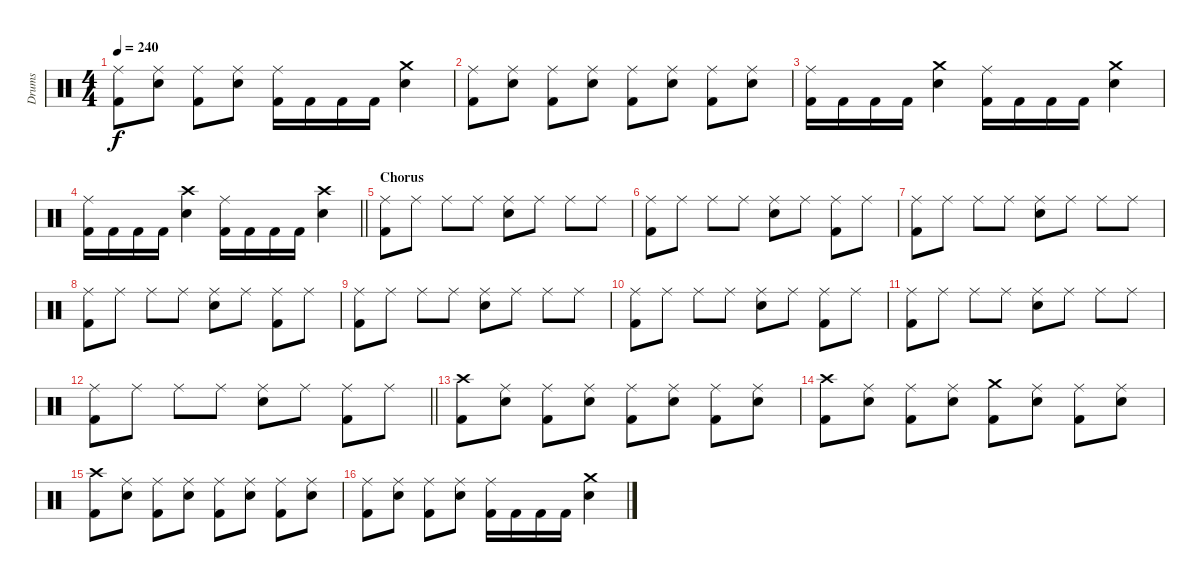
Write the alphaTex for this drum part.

\track ("Drums" "Drums") {instrument percussion}
\staff {score}
\articulation defaults
\ts (4 4)
\tempo 240
\clef neutral
\ks c
("Ride (middle)" "Kick (hit) 2").8{dy f} ("Ride (middle)" "Snare (hit) 2").8 ("Ride (middle)" "Kick (hit) 2").8 ("Ride (middle)" "Snare (hit) 2").8 ("Ride (middle)" "Kick (hit) 2").16 "Kick (hit) 2".16 "Kick (hit) 2".16 "Kick (hit) 2".16 ("Crash medium (hit)" "Snare (hit) 2").4 |
("Ride (middle)" "Kick (hit) 2").8 ("Ride (middle)" "Snare (hit) 2").8 ("Ride (middle)" "Kick (hit) 2").8 ("Ride (middle)" "Snare (hit) 2").8 ("Ride (middle)" "Kick (hit) 2").8 ("Ride (middle)" "Snare (hit) 2").8 ("Ride (middle)" "Kick (hit) 2").8 ("Ride (middle)" "Snare (hit) 2").8 |
("Ride (middle)" "Kick (hit) 2").16 "Kick (hit) 2".16 "Kick (hit) 2".16 "Kick (hit) 2".16 ("Crash medium (hit)" "Snare (hit) 2").4 ("Ride (middle)" "Kick (hit) 2").16 "Kick (hit) 2".16 "Kick (hit) 2".16 "Kick (hit) 2".16 ("Crash medium (hit)" "Snare (hit) 2").4 |
\barLineRight lightlight
("Ride (middle)" "Kick (hit) 2").16 "Kick (hit) 2".16 "Kick (hit) 2".16 "Kick (hit) 2".16 ("Crash high (hit)" "Snare (hit) 2").4 ("Ride (middle)" "Kick (hit) 2").16 "Kick (hit) 2".16 "Kick (hit) 2".16 "Kick (hit) 2".16 ("Crash high (hit)" "Snare (hit) 2").4 |
\section ("" "Chorus")
("Ride (middle)" "Kick (hit) 2").8 "Ride (middle)".8 "Ride (middle)".8 "Ride (middle)".8 ("Ride (middle)" "Snare (hit) 2").8 "Ride (middle)".8 "Ride (middle)".8 "Ride (middle)".8 |
("Ride (middle)" "Kick (hit) 2").8 "Ride (middle)".8 "Ride (middle)".8 "Ride (middle)".8 ("Ride (middle)" "Snare (hit) 2").8 "Ride (middle)".8 ("Ride (middle)" "Kick (hit) 2").8 "Ride (middle)".8 |
("Ride (middle)" "Kick (hit) 2").8 "Ride (middle)".8 "Ride (middle)".8 "Ride (middle)".8 ("Ride (middle)" "Snare (hit) 2").8 "Ride (middle)".8 "Ride (middle)".8 "Ride (middle)".8 |
("Ride (middle)" "Kick (hit) 2").8 "Ride (middle)".8 "Ride (middle)".8 "Ride (middle)".8 ("Ride (middle)" "Snare (hit) 2").8 "Ride (middle)".8 ("Ride (middle)" "Kick (hit) 2").8 "Ride (middle)".8 |
("Ride (middle)" "Kick (hit) 2").8 "Ride (middle)".8 "Ride (middle)".8 "Ride (middle)".8 ("Ride (middle)" "Snare (hit) 2").8 "Ride (middle)".8 "Ride (middle)".8 "Ride (middle)".8 |
("Ride (middle)" "Kick (hit) 2").8 "Ride (middle)".8 "Ride (middle)".8 "Ride (middle)".8 ("Ride (middle)" "Snare (hit) 2").8 "Ride (middle)".8 ("Ride (middle)" "Kick (hit) 2").8 "Ride (middle)".8 |
("Ride (middle)" "Kick (hit) 2").8 "Ride (middle)".8 "Ride (middle)".8 "Ride (middle)".8 ("Ride (middle)" "Snare (hit) 2").8 "Ride (middle)".8 "Ride (middle)".8 "Ride (middle)".8 |
\barLineRight lightlight
("Ride (middle)" "Kick (hit) 2").8 "Ride (middle)".8 "Ride (middle)".8 "Ride (middle)".8 ("Ride (middle)" "Snare (hit) 2").8 "Ride (middle)".8 ("Ride (middle)" "Kick (hit) 2").8 "Ride (middle)".8 |
\section ("" "")
("Crash high (hit)" "Kick (hit) 2").8 ("Ride (middle)" "Snare (hit) 2").8 ("Ride (middle)" "Kick (hit) 2").8 ("Ride (middle)" "Snare (hit) 2").8 ("Ride (middle)" "Kick (hit) 2").8 ("Ride (middle)" "Snare (hit) 2").8 ("Ride (middle)" "Kick (hit) 2").8 ("Ride (middle)" "Snare (hit) 2").8 |
("Crash high (hit)" "Kick (hit) 2").8 ("Ride (middle)" "Snare (hit) 2").8 ("Ride (middle)" "Kick (hit) 2").8 ("Ride (middle)" "Snare (hit) 2").8 ("Crash medium (hit)" "Kick (hit) 2").8 ("Ride (middle)" "Snare (hit) 2").8 ("Ride (middle)" "Kick (hit) 2").8 ("Ride (middle)" "Snare (hit) 2").8 |
("Crash high (hit)" "Kick (hit) 2").8 ("Ride (middle)" "Snare (hit) 2").8 ("Ride (middle)" "Kick (hit) 2").8 ("Ride (middle)" "Snare (hit) 2").8 ("Ride (middle)" "Kick (hit) 2").8 ("Ride (middle)" "Snare (hit) 2").8 ("Ride (middle)" "Kick (hit) 2").8 ("Ride (middle)" "Snare (hit) 2").8 |
("Ride (middle)" "Kick (hit) 2").8 ("Ride (middle)" "Snare (hit) 2").8 ("Ride (middle)" "Kick (hit) 2").8 ("Ride (middle)" "Snare (hit) 2").8 ("Ride (middle)" "Kick (hit) 2").16 "Kick (hit) 2".16 "Kick (hit) 2".16 "Kick (hit) 2".16 ("Crash medium (hit)" "Snare (hit) 2").4
